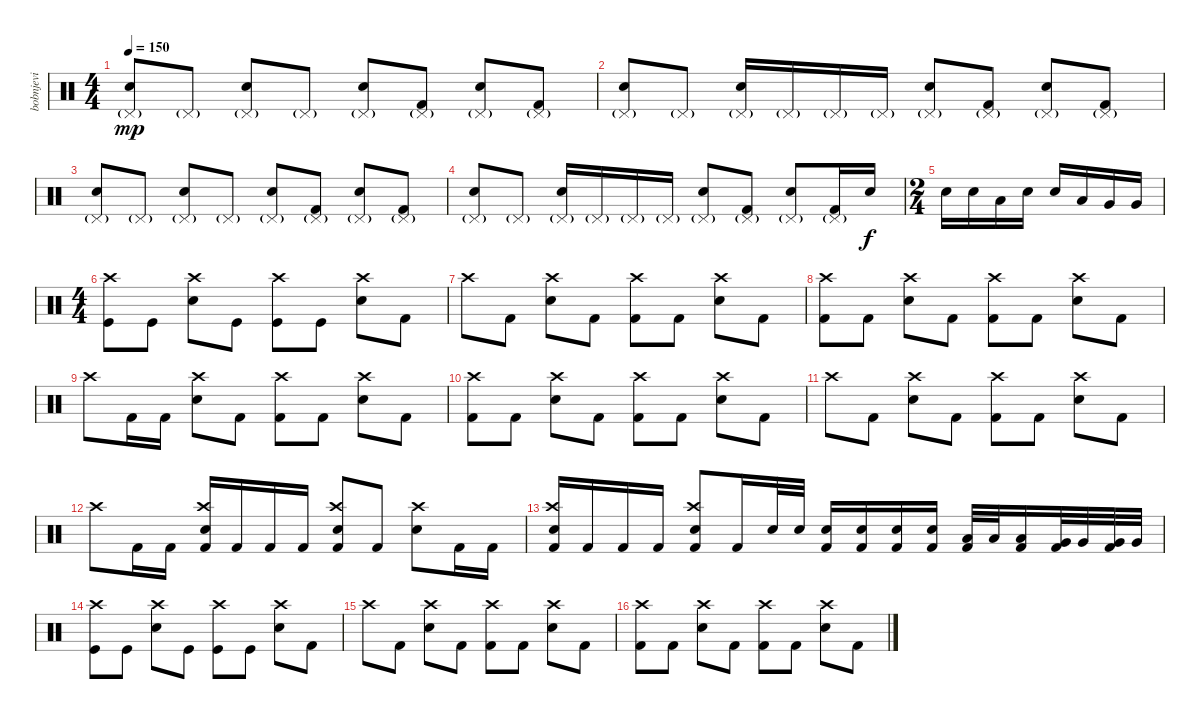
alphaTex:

\track ("bobnjevi" "bobnjevi") {instrument percussion}
\staff {score}
\articulation defaults
\ts (4 4)
\tempo 150
\clef neutral
\ks c
("Pedal Hi-Hat (hit)"{g} "Snare (hit) 2").8{dy mp} "Pedal Hi-Hat (hit)"{g}.8 ("Pedal Hi-Hat (hit)"{g} "Snare (hit) 2").8 "Pedal Hi-Hat (hit)"{g}.8 ("Pedal Hi-Hat (hit)"{g} "Snare (hit) 2").8 ("Pedal Hi-Hat (hit)"{g} "Kick (hit) 2").8 ("Pedal Hi-Hat (hit)"{g} "Snare (hit) 2").8 ("Pedal Hi-Hat (hit)"{g} "Kick (hit) 2").8 |
("Pedal Hi-Hat (hit)"{g} "Snare (hit) 2").8 "Pedal Hi-Hat (hit)"{g}.8 ("Pedal Hi-Hat (hit)"{g} "Snare (hit) 2").16 "Pedal Hi-Hat (hit)"{g}.16 "Pedal Hi-Hat (hit)"{g}.16 "Pedal Hi-Hat (hit)"{g}.16 ("Pedal Hi-Hat (hit)"{g} "Snare (hit) 2").8 ("Pedal Hi-Hat (hit)"{g} "Kick (hit) 2").8 ("Pedal Hi-Hat (hit)"{g} "Snare (hit) 2").8 ("Pedal Hi-Hat (hit)"{g} "Kick (hit) 2").8 |
("Pedal Hi-Hat (hit)"{g} "Snare (hit) 2").8 "Pedal Hi-Hat (hit)"{g}.8 ("Pedal Hi-Hat (hit)"{g} "Snare (hit) 2").8 "Pedal Hi-Hat (hit)"{g}.8 ("Pedal Hi-Hat (hit)"{g} "Snare (hit) 2").8 ("Pedal Hi-Hat (hit)"{g} "Kick (hit) 2").8 ("Pedal Hi-Hat (hit)"{g} "Snare (hit) 2").8 ("Pedal Hi-Hat (hit)"{g} "Kick (hit) 2").8 |
("Pedal Hi-Hat (hit)"{g} "Snare (hit) 2").8 "Pedal Hi-Hat (hit)"{g}.8 ("Pedal Hi-Hat (hit)"{g} "Snare (hit) 2").16 "Pedal Hi-Hat (hit)"{g}.16 "Pedal Hi-Hat (hit)"{g}.16 "Pedal Hi-Hat (hit)"{g}.16 ("Pedal Hi-Hat (hit)"{g} "Snare (hit) 2").8 ("Pedal Hi-Hat (hit)"{g} "Kick (hit) 2").8 ("Pedal Hi-Hat (hit)"{g} "Snare (hit) 2").8 ("Pedal Hi-Hat (hit)"{g} "Kick (hit) 2").16 "Snare (hit) 2".16{dy f} |
\ts (2 4)
"Snare (hit) 2".16 "Snare (hit) 2".16 "Low Tom (hit)".16 "Snare (hit) 2".16 "Snare (hit) 2".16 "Low Tom (hit)".16 "Very Low Tom (hit)".16 "Very Low Tom (hit)".16 |
\ts (4 4)
("Crash high (hit)" "Kick (hit)").8 "Kick (hit)".8 ("Crash high (hit)" "Snare (hit) 2").8 "Kick (hit)".8 ("Crash high (hit)" "Kick (hit)").8 "Kick (hit)".8 ("Crash high (hit)" "Snare (hit) 2").8 "Kick (hit) 2".8 |
"Crash high (hit)".8 "Kick (hit) 2".8 ("Crash high (hit)" "Snare (hit) 2").8 "Kick (hit) 2".8 ("Crash high (hit)" "Kick (hit) 2").8 "Kick (hit) 2".8 ("Crash high (hit)" "Snare (hit) 2").8 "Kick (hit) 2".8 |
("Crash high (hit)" "Kick (hit) 2").8 "Kick (hit) 2".8 ("Crash high (hit)" "Snare (hit) 2").8 "Kick (hit) 2".8 ("Crash high (hit)" "Kick (hit) 2").8 "Kick (hit) 2".8 ("Crash high (hit)" "Snare (hit) 2").8 "Kick (hit) 2".8 |
"Crash high (hit)".8 "Kick (hit) 2".16 "Kick (hit) 2".16 ("Crash high (hit)" "Snare (hit) 2").8 "Kick (hit) 2".8 ("Crash high (hit)" "Kick (hit) 2").8 "Kick (hit) 2".8 ("Crash high (hit)" "Snare (hit) 2").8 "Kick (hit) 2".8 |
("Crash high (hit)" "Kick (hit) 2").8 "Kick (hit) 2".8 ("Crash high (hit)" "Snare (hit) 2").8 "Kick (hit) 2".8 ("Crash high (hit)" "Kick (hit) 2").8 "Kick (hit) 2".8 ("Crash high (hit)" "Snare (hit) 2").8 "Kick (hit) 2".8 |
"Crash high (hit)".8 "Kick (hit) 2".8 ("Crash high (hit)" "Snare (hit) 2").8 "Kick (hit) 2".8 ("Crash high (hit)" "Kick (hit) 2").8 "Kick (hit) 2".8 ("Crash high (hit)" "Snare (hit) 2").8 "Kick (hit) 2".8 |
"Crash high (hit)".8 "Kick (hit) 2".16 "Kick (hit) 2".16 ("Crash high (hit)" "Electric Snare (hit)" "Kick (hit) 2").16 "Kick (hit) 2".16 "Kick (hit) 2".16 "Kick (hit) 2".16 ("Crash high (hit)" "Electric Snare (hit)" "Kick (hit) 2").8 "Kick (hit) 2".8 ("Crash high (hit)" "Electric Snare (hit)").8 "Kick (hit) 2".16 "Kick (hit) 2".16 |
("Crash high (hit)" "Electric Snare (hit)" "Kick (hit) 2").16 "Kick (hit) 2".16 "Kick (hit) 2".16 "Kick (hit) 2".16 ("Crash high (hit)" "Electric Snare (hit)" "Kick (hit) 2").8 "Kick (hit) 2".16 "Electric Snare (hit)".32 "Electric Snare (hit)".32 ("Electric Snare (hit)" "Kick (hit) 2").16 ("Electric Snare (hit)" "Kick (hit) 2").16 ("Electric Snare (hit)" "Kick (hit) 2").16 ("Electric Snare (hit)" "Kick (hit) 2").16 ("Low Tom (hit)" "Kick (hit) 2").32 "Low Tom (hit)".32 ("Low Tom (hit)" "Kick (hit) 2").16 ("Very Low Tom (hit)" "Kick (hit) 2").32 "Very Low Tom (hit)".32 ("Very Low Tom (hit)" "Kick (hit) 2").32 "Very Low Tom (hit)".32 |
("Crash high (hit)" "Kick (hit)").8 "Kick (hit)".8 ("Crash high (hit)" "Snare (hit) 2").8 "Kick (hit)".8 ("Crash high (hit)" "Kick (hit)").8 "Kick (hit)".8 ("Crash high (hit)" "Snare (hit) 2").8 "Kick (hit) 2".8 |
"Crash high (hit)".8 "Kick (hit) 2".8 ("Crash high (hit)" "Snare (hit) 2").8 "Kick (hit) 2".8 ("Crash high (hit)" "Kick (hit) 2").8 "Kick (hit) 2".8 ("Crash high (hit)" "Snare (hit) 2").8 "Kick (hit) 2".8 |
("Crash high (hit)" "Kick (hit) 2").8 "Kick (hit) 2".8 ("Crash high (hit)" "Snare (hit) 2").8 "Kick (hit) 2".8 ("Crash high (hit)" "Kick (hit) 2").8 "Kick (hit) 2".8 ("Crash high (hit)" "Snare (hit) 2").8 "Kick (hit) 2".8
